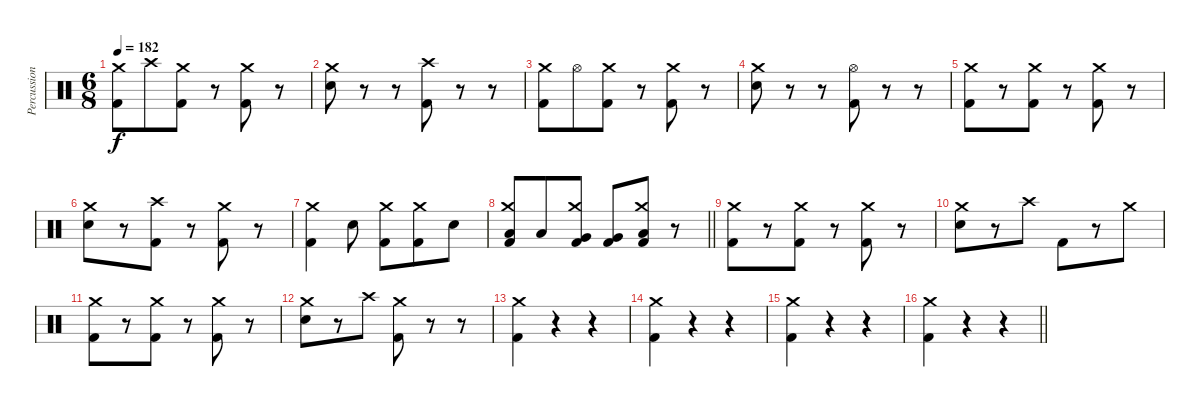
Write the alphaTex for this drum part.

\track ("Percussion" "Percussion") {instrument percussion}
\staff {score}
\articulation defaults
\ts (6 8)
\tempo 182
\clef neutral
\ks c
("Kick (hit) 2" "Crash medium (hit)").8{dy f} "Crash high (hit)".8 ("Kick (hit) 2" "Crash medium (hit)").8 r.8 ("Kick (hit) 2" "Crash medium (hit)").8 r.8 |
("Snare (hit) 2" "Crash medium (hit)").8 r.8 r.8 ("Kick (hit) 2" "Crash high (hit)").8 r.8 r.8 |
("Kick (hit) 2" "Crash medium (hit)").8 "Hi-Hat (open)".8 ("Kick (hit) 2" "Crash medium (hit)").8 r.8 ("Kick (hit) 2" "Crash medium (hit)").8 r.8 |
("Snare (hit) 2" "Crash medium (hit)").8 r.8 r.8 ("Kick (hit) 2" "Hi-Hat (open)").8 r.8 r.8 |
("Kick (hit) 2" "Crash medium (hit)").8 r.8 ("Kick (hit) 2" "Crash medium (hit)").8 r.8 ("Kick (hit) 2" "Crash medium (hit)").8 r.8 |
("Snare (hit) 2" "Crash medium (hit)").8 r.8 ("Kick (hit) 2" "Crash high (hit)").8 r.8 ("Kick (hit) 2" "Crash medium (hit)").8 r.8 |
("Kick (hit) 2" "Crash medium (hit)").4 "Snare (hit) 2".8 ("Kick (hit) 2" "Crash medium (hit)").8 ("Kick (hit) 2" "Crash medium (hit)").8 "Snare (hit) 2".8 |
\barLineRight lightlight
("Kick (hit) 2" "Low Tom (hit)" "Crash medium (hit)").8 "Low Tom (hit)".8 ("Kick (hit) 2" "Very Low Tom (hit)" "Crash medium (hit)").8 ("Kick (hit) 2" "Very Low Tom (hit)").8 ("Kick (hit) 2" "Low Floor Tom (hit)" "Crash medium (hit)").8 r.8 |
("Kick (hit) 2" "Crash medium (hit)").8 r.8 ("Kick (hit) 2" "Crash medium (hit)").8 r.8 ("Kick (hit) 2" "Crash medium (hit)").8 r.8 |
("Snare (hit) 2" "Crash medium (hit)").8 r.8 "Crash high (hit)".8 "Kick (hit) 2".8 r.8 "Crash medium (hit)".8 |
("Kick (hit) 2" "Crash medium (hit)").8 r.8 ("Kick (hit) 2" "Crash medium (hit)").8 r.8 ("Kick (hit) 2" "Crash medium (hit)").8 r.8 |
("Snare (hit) 2" "Crash medium (hit)").8 r.8 "Crash high (hit)".8 ("Kick (hit) 2" "Crash medium (hit)").8 r.8 r.8 |
("Kick (hit) 2" "Crash medium (hit)").4 r.4 r.4 |
("Kick (hit) 2" "Crash medium (hit)").4 r.4 r.4 |
("Kick (hit) 2" "Crash medium (hit)").4 r.4 r.4 |
\barLineRight lightlight
("Kick (hit) 2" "Crash medium (hit)").4 r.4 r.4
